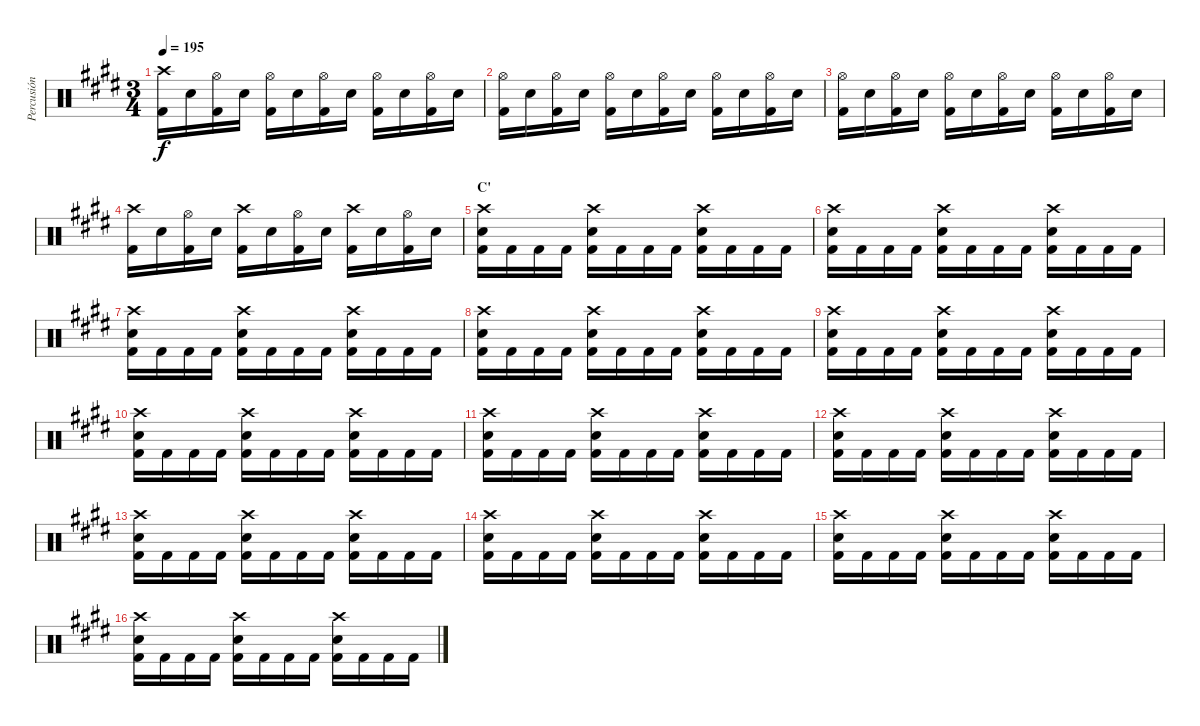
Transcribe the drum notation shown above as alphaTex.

\track ("Percusión" "Percusión") {instrument percussion}
\staff {score}
\articulation defaults
\ts (3 4)
\tempo 195
\clef neutral
\ks e
("Crash high (hit)" "Kick (hit) 2").16{dy f} "Electric Snare (hit)".16 ("Hi-Hat (open)" "Kick (hit) 2").16 "Electric Snare (hit)".16 ("Hi-Hat (open)" "Kick (hit) 2").16 "Electric Snare (hit)".16 ("Hi-Hat (open)" "Kick (hit) 2").16 "Electric Snare (hit)".16 ("Hi-Hat (open)" "Kick (hit) 2").16 "Electric Snare (hit)".16 ("Hi-Hat (open)" "Kick (hit) 2").16 "Electric Snare (hit)".16 |
("Hi-Hat (open)" "Kick (hit) 2").16 "Electric Snare (hit)".16 ("Hi-Hat (open)" "Kick (hit) 2").16 "Electric Snare (hit)".16 ("Hi-Hat (open)" "Kick (hit) 2").16 "Electric Snare (hit)".16 ("Hi-Hat (open)" "Kick (hit) 2").16 "Electric Snare (hit)".16 ("Hi-Hat (open)" "Kick (hit) 2").16 "Electric Snare (hit)".16 ("Hi-Hat (open)" "Kick (hit) 2").16 "Electric Snare (hit)".16 |
("Hi-Hat (open)" "Kick (hit) 2").16 "Electric Snare (hit)".16 ("Hi-Hat (open)" "Kick (hit) 2").16 "Electric Snare (hit)".16 ("Hi-Hat (open)" "Kick (hit) 2").16 "Electric Snare (hit)".16 ("Hi-Hat (open)" "Kick (hit) 2").16 "Electric Snare (hit)".16 ("Hi-Hat (open)" "Kick (hit) 2").16 "Electric Snare (hit)".16 ("Hi-Hat (open)" "Kick (hit) 2").16 "Electric Snare (hit)".16 |
("Crash high (hit)" "Kick (hit) 2").16 "Electric Snare (hit)".16 ("Hi-Hat (open)" "Kick (hit) 2").16 "Electric Snare (hit)".16 ("Crash high (hit)" "Kick (hit) 2").16 "Electric Snare (hit)".16 ("Hi-Hat (open)" "Kick (hit) 2").16 "Electric Snare (hit)".16 ("Crash high (hit)" "Kick (hit) 2").16 "Electric Snare (hit)".16 ("Hi-Hat (open)" "Kick (hit) 2").16 "Electric Snare (hit)".16 |
\section ("" "C'")
("Crash high (hit)" "Electric Snare (hit)" "Kick (hit) 2").16 "Kick (hit) 2".16 "Kick (hit) 2".16 "Kick (hit) 2".16 ("Crash high (hit)" "Electric Snare (hit)" "Kick (hit) 2").16 "Kick (hit) 2".16 "Kick (hit) 2".16 "Kick (hit) 2".16 ("Crash high (hit)" "Electric Snare (hit)" "Kick (hit) 2").16 "Kick (hit) 2".16 "Kick (hit) 2".16 "Kick (hit) 2".16 |
("Crash high (hit)" "Electric Snare (hit)" "Kick (hit) 2").16 "Kick (hit) 2".16 "Kick (hit) 2".16 "Kick (hit) 2".16 ("Crash high (hit)" "Electric Snare (hit)" "Kick (hit) 2").16 "Kick (hit) 2".16 "Kick (hit) 2".16 "Kick (hit) 2".16 ("Crash high (hit)" "Electric Snare (hit)" "Kick (hit) 2").16 "Kick (hit) 2".16 "Kick (hit) 2".16 "Kick (hit) 2".16 |
("Crash high (hit)" "Electric Snare (hit)" "Kick (hit) 2").16 "Kick (hit) 2".16 "Kick (hit) 2".16 "Kick (hit) 2".16 ("Crash high (hit)" "Electric Snare (hit)" "Kick (hit) 2").16 "Kick (hit) 2".16 "Kick (hit) 2".16 "Kick (hit) 2".16 ("Crash high (hit)" "Electric Snare (hit)" "Kick (hit) 2").16 "Kick (hit) 2".16 "Kick (hit) 2".16 "Kick (hit) 2".16 |
("Crash high (hit)" "Electric Snare (hit)" "Kick (hit) 2").16 "Kick (hit) 2".16 "Kick (hit) 2".16 "Kick (hit) 2".16 ("Crash high (hit)" "Electric Snare (hit)" "Kick (hit) 2").16 "Kick (hit) 2".16 "Kick (hit) 2".16 "Kick (hit) 2".16 ("Crash high (hit)" "Electric Snare (hit)" "Kick (hit) 2").16 "Kick (hit) 2".16 "Kick (hit) 2".16 "Kick (hit) 2".16 |
("Crash high (hit)" "Electric Snare (hit)" "Kick (hit) 2").16 "Kick (hit) 2".16 "Kick (hit) 2".16 "Kick (hit) 2".16 ("Crash high (hit)" "Electric Snare (hit)" "Kick (hit) 2").16 "Kick (hit) 2".16 "Kick (hit) 2".16 "Kick (hit) 2".16 ("Crash high (hit)" "Electric Snare (hit)" "Kick (hit) 2").16 "Kick (hit) 2".16 "Kick (hit) 2".16 "Kick (hit) 2".16 |
("Crash high (hit)" "Electric Snare (hit)" "Kick (hit) 2").16 "Kick (hit) 2".16 "Kick (hit) 2".16 "Kick (hit) 2".16 ("Crash high (hit)" "Electric Snare (hit)" "Kick (hit) 2").16 "Kick (hit) 2".16 "Kick (hit) 2".16 "Kick (hit) 2".16 ("Crash high (hit)" "Electric Snare (hit)" "Kick (hit) 2").16 "Kick (hit) 2".16 "Kick (hit) 2".16 "Kick (hit) 2".16 |
("Crash high (hit)" "Electric Snare (hit)" "Kick (hit) 2").16 "Kick (hit) 2".16 "Kick (hit) 2".16 "Kick (hit) 2".16 ("Crash high (hit)" "Electric Snare (hit)" "Kick (hit) 2").16 "Kick (hit) 2".16 "Kick (hit) 2".16 "Kick (hit) 2".16 ("Crash high (hit)" "Electric Snare (hit)" "Kick (hit) 2").16 "Kick (hit) 2".16 "Kick (hit) 2".16 "Kick (hit) 2".16 |
("Crash high (hit)" "Electric Snare (hit)" "Kick (hit) 2").16 "Kick (hit) 2".16 "Kick (hit) 2".16 "Kick (hit) 2".16 ("Crash high (hit)" "Electric Snare (hit)" "Kick (hit) 2").16 "Kick (hit) 2".16 "Kick (hit) 2".16 "Kick (hit) 2".16 ("Crash high (hit)" "Electric Snare (hit)" "Kick (hit) 2").16 "Kick (hit) 2".16 "Kick (hit) 2".16 "Kick (hit) 2".16 |
("Crash high (hit)" "Electric Snare (hit)" "Kick (hit) 2").16 "Kick (hit) 2".16 "Kick (hit) 2".16 "Kick (hit) 2".16 ("Crash high (hit)" "Electric Snare (hit)" "Kick (hit) 2").16 "Kick (hit) 2".16 "Kick (hit) 2".16 "Kick (hit) 2".16 ("Crash high (hit)" "Electric Snare (hit)" "Kick (hit) 2").16 "Kick (hit) 2".16 "Kick (hit) 2".16 "Kick (hit) 2".16 |
("Crash high (hit)" "Electric Snare (hit)" "Kick (hit) 2").16 "Kick (hit) 2".16 "Kick (hit) 2".16 "Kick (hit) 2".16 ("Crash high (hit)" "Electric Snare (hit)" "Kick (hit) 2").16 "Kick (hit) 2".16 "Kick (hit) 2".16 "Kick (hit) 2".16 ("Crash high (hit)" "Electric Snare (hit)" "Kick (hit) 2").16 "Kick (hit) 2".16 "Kick (hit) 2".16 "Kick (hit) 2".16 |
("Crash high (hit)" "Electric Snare (hit)" "Kick (hit) 2").16 "Kick (hit) 2".16 "Kick (hit) 2".16 "Kick (hit) 2".16 ("Crash high (hit)" "Electric Snare (hit)" "Kick (hit) 2").16 "Kick (hit) 2".16 "Kick (hit) 2".16 "Kick (hit) 2".16 ("Crash high (hit)" "Electric Snare (hit)" "Kick (hit) 2").16 "Kick (hit) 2".16 "Kick (hit) 2".16 "Kick (hit) 2".16 |
("Crash high (hit)" "Electric Snare (hit)" "Kick (hit) 2").16 "Kick (hit) 2".16 "Kick (hit) 2".16 "Kick (hit) 2".16 ("Crash high (hit)" "Electric Snare (hit)" "Kick (hit) 2").16 "Kick (hit) 2".16 "Kick (hit) 2".16 "Kick (hit) 2".16 ("Crash high (hit)" "Electric Snare (hit)" "Kick (hit) 2").16 "Kick (hit) 2".16 "Kick (hit) 2".16 "Kick (hit) 2".16
